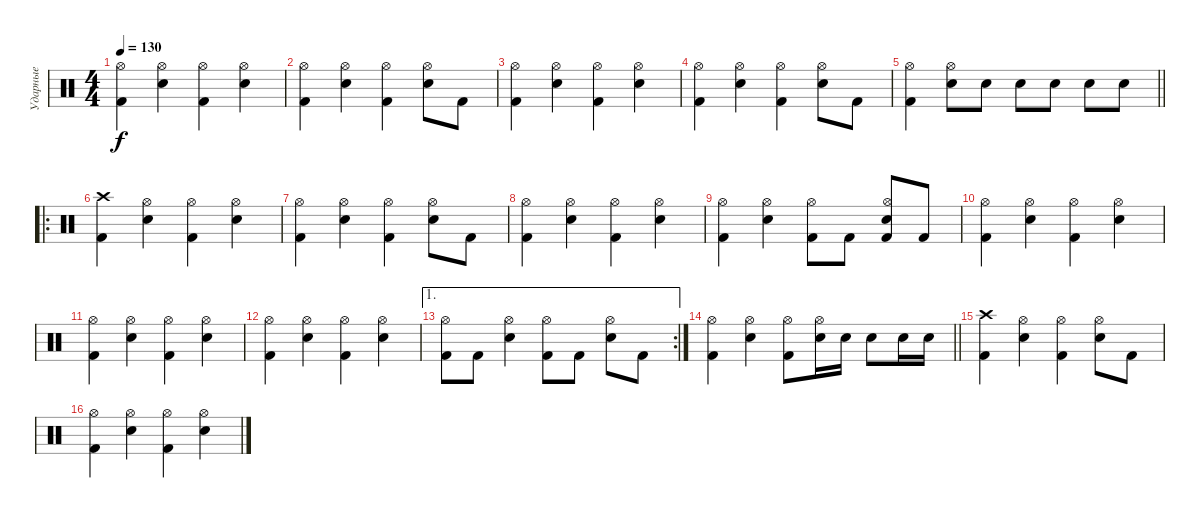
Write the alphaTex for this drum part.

\track ("Ударные" "Ударные") {instrument percussion}
\staff
\articulation defaults
\ts (4 4)
\tempo 130
\clef neutral
\ks c
("Kick (hit) 2" "Hi-Hat (open)").4{dy f} ("Snare (hit) 2" "Hi-Hat (open)").4 ("Kick (hit) 2" "Hi-Hat (open)").4 ("Snare (hit) 2" "Hi-Hat (open)").4 |
("Kick (hit) 2" "Hi-Hat (open)").4 ("Snare (hit) 2" "Hi-Hat (open)").4 ("Kick (hit) 2" "Hi-Hat (open)").4 ("Snare (hit) 2" "Hi-Hat (open)").8 "Kick (hit) 2".8 |
("Kick (hit) 2" "Hi-Hat (open)").4 ("Snare (hit) 2" "Hi-Hat (open)").4 ("Kick (hit) 2" "Hi-Hat (open)").4 ("Snare (hit) 2" "Hi-Hat (open)").4 |
("Kick (hit) 2" "Hi-Hat (open)").4 ("Snare (hit) 2" "Hi-Hat (open)").4 ("Kick (hit) 2" "Hi-Hat (open)").4 ("Snare (hit) 2" "Hi-Hat (open)").8 "Kick (hit) 2".8 |
\barLineRight lightlight
("Kick (hit) 2" "Hi-Hat (open)").4 ("Snare (hit) 2" "Hi-Hat (open)").8 "Snare (hit) 2".8 "Snare (hit) 2".8 "Snare (hit) 2".8 "Snare (hit) 2".8 "Snare (hit) 2".8 |
\ro
("Kick (hit) 2" "Crash high (hit)").4 ("Snare (hit) 2" "Hi-Hat (open)").4 ("Kick (hit) 2" "Hi-Hat (open)").4 ("Snare (hit) 2" "Hi-Hat (open)").4 |
("Kick (hit) 2" "Hi-Hat (open)").4 ("Snare (hit) 2" "Hi-Hat (open)").4 ("Kick (hit) 2" "Hi-Hat (open)").4 ("Snare (hit) 2" "Hi-Hat (open)").8 "Kick (hit) 2".8 |
("Kick (hit) 2" "Hi-Hat (open)").4 ("Snare (hit) 2" "Hi-Hat (open)").4 ("Kick (hit) 2" "Hi-Hat (open)").4 ("Snare (hit) 2" "Hi-Hat (open)").4 |
("Kick (hit) 2" "Hi-Hat (open)").4 ("Snare (hit) 2" "Hi-Hat (open)").4 ("Kick (hit) 2" "Hi-Hat (open)").8 "Kick (hit) 2".8 ("Kick (hit) 2" "Snare (hit) 2" "Hi-Hat (open)").8 "Kick (hit) 2".8 |
("Kick (hit) 2" "Hi-Hat (open)").4 ("Snare (hit) 2" "Hi-Hat (open)").4 ("Kick (hit) 2" "Hi-Hat (open)").4 ("Snare (hit) 2" "Hi-Hat (open)").4 |
("Kick (hit) 2" "Hi-Hat (open)").4 ("Snare (hit) 2" "Hi-Hat (open)").4 ("Kick (hit) 2" "Hi-Hat (open)").4 ("Snare (hit) 2" "Hi-Hat (open)").4 |
("Kick (hit) 2" "Hi-Hat (open)").4 ("Snare (hit) 2" "Hi-Hat (open)").4 ("Kick (hit) 2" "Hi-Hat (open)").4 ("Snare (hit) 2" "Hi-Hat (open)").4 |
\ae 1
\rc 2
("Kick (hit) 2" "Hi-Hat (open)").8 "Kick (hit) 2".8 ("Snare (hit) 2" "Hi-Hat (open)").4 ("Kick (hit) 2" "Hi-Hat (open)").8 "Kick (hit) 2".8 ("Snare (hit) 2" "Hi-Hat (open)").8 "Kick (hit) 2".8 |
\barLineRight lightlight
("Kick (hit) 2" "Hi-Hat (open)").4 ("Snare (hit) 2" "Hi-Hat (open)").4 ("Kick (hit) 2" "Hi-Hat (open)").8 ("Snare (hit) 2" "Hi-Hat (open)").16 "Snare (hit) 2".16 "Snare (hit) 2".8 "Snare (hit) 2".16 "Snare (hit) 2".16 |
("Kick (hit) 2" "Crash high (hit)").4 ("Snare (hit) 2" "Hi-Hat (open)").4 ("Kick (hit) 2" "Hi-Hat (open)").4 ("Snare (hit) 2" "Hi-Hat (open)").8 "Kick (hit) 2".8 |
("Kick (hit) 2" "Hi-Hat (open)").4 ("Snare (hit) 2" "Hi-Hat (open)").4 ("Kick (hit) 2" "Hi-Hat (open)").4 ("Snare (hit) 2" "Hi-Hat (open)").4
